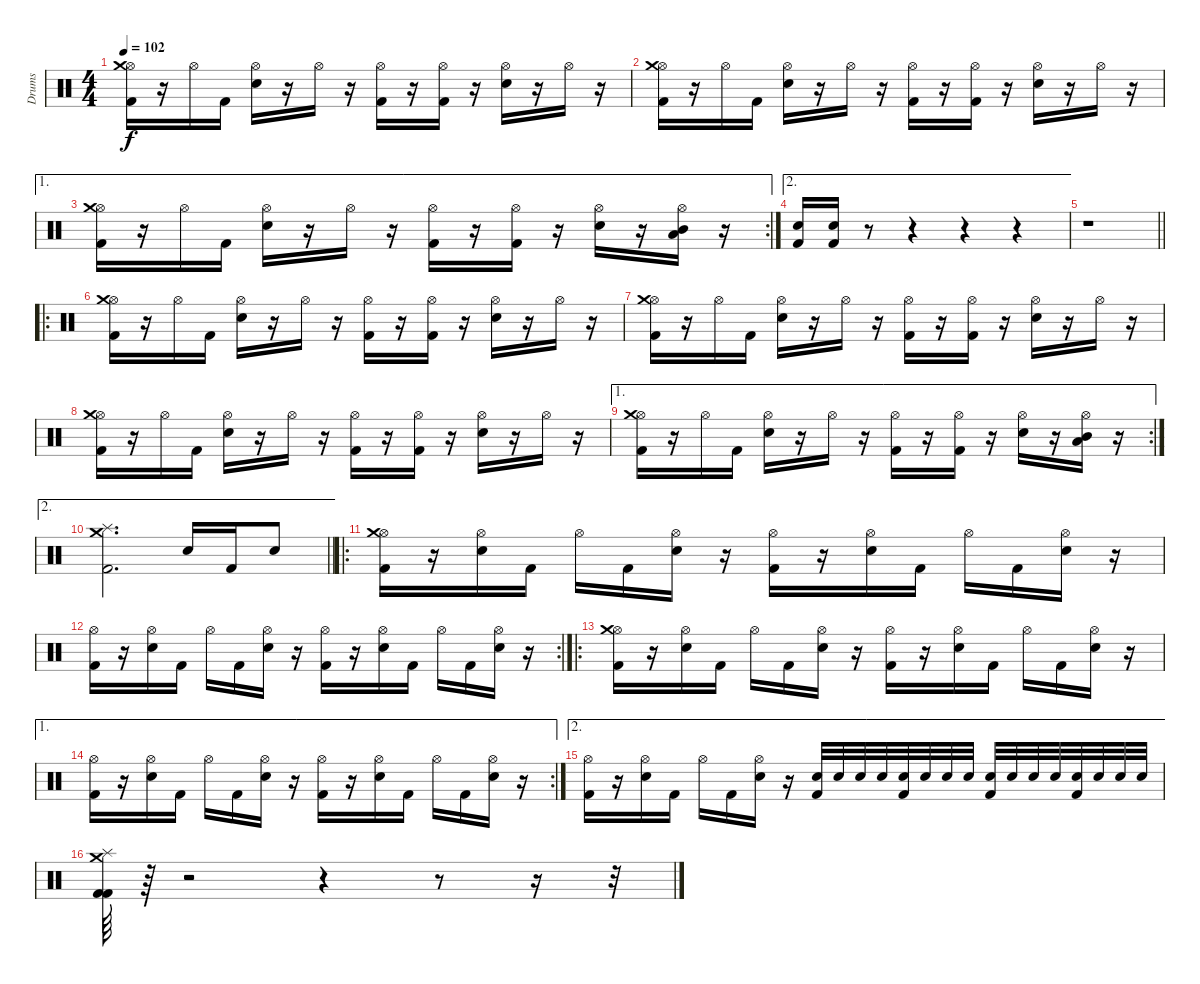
\track ("Drums" "Drums") {instrument percussion}
\staff {score}
\articulation defaults
\ts (4 4)
\tempo 102
\clef neutral
\ks c
("Hi-Hat (open)" "Crash medium (hit)" "Kick (hit) 2").16{dy f} r.16 "Hi-Hat (open)".16 "Kick (hit) 2".16 ("Hi-Hat (open)" "Electric Snare (hit)").16 r.16 "Hi-Hat (open)".16 r.16 ("Hi-Hat (open)" "Kick (hit) 2").16 r.16 ("Hi-Hat (open)" "Kick (hit) 2").16 r.16 ("Hi-Hat (open)" "Electric Snare (hit)").16 r.16 "Hi-Hat (open)".16 r.16 |
("Hi-Hat (open)" "Crash medium (hit)" "Kick (hit) 2").16 r.16 "Hi-Hat (open)".16 "Kick (hit) 2".16 ("Hi-Hat (open)" "Electric Snare (hit)").16 r.16 "Hi-Hat (open)".16 r.16 ("Hi-Hat (open)" "Kick (hit) 2").16 r.16 ("Hi-Hat (open)" "Kick (hit) 2").16 r.16 ("Hi-Hat (open)" "Electric Snare (hit)").16 r.16 "Hi-Hat (open)".16 r.16 |
\ae 1
\rc 2
("Hi-Hat (open)" "Crash medium (hit)" "Kick (hit) 2").16 r.16 "Hi-Hat (open)".16 "Kick (hit) 2".16 ("Hi-Hat (open)" "Electric Snare (hit)").16 r.16 "Hi-Hat (open)".16 r.16 ("Hi-Hat (open)" "Kick (hit) 2").16 r.16 ("Hi-Hat (open)" "Kick (hit) 2").16 r.16 ("Hi-Hat (open)" "Electric Snare (hit)").16 r.16 ("Hi-Hat (open)" "Mid Tom (hit)" "Low Tom (hit)").16 r.16 |
\ae 2
("Electric Snare (hit)" "Kick (hit) 2").16 ("Electric Snare (hit)" "Kick (hit) 2").16 r.8 r.4 r.4 r.4 |
\barLineRight lightlight
r.1 |
\ro
("Hi-Hat (open)" "Crash medium (hit)" "Kick (hit) 2").16 r.16 "Hi-Hat (open)".16 "Kick (hit) 2".16 ("Hi-Hat (open)" "Electric Snare (hit)").16 r.16 "Hi-Hat (open)".16 r.16 ("Hi-Hat (open)" "Kick (hit) 2").16 r.16 ("Hi-Hat (open)" "Kick (hit) 2").16 r.16 ("Hi-Hat (open)" "Electric Snare (hit)").16 r.16 "Hi-Hat (open)".16 r.16 |
("Hi-Hat (open)" "Crash medium (hit)" "Kick (hit) 2").16 r.16 "Hi-Hat (open)".16 "Kick (hit) 2".16 ("Hi-Hat (open)" "Electric Snare (hit)").16 r.16 "Hi-Hat (open)".16 r.16 ("Hi-Hat (open)" "Kick (hit) 2").16 r.16 ("Hi-Hat (open)" "Kick (hit) 2").16 r.16 ("Hi-Hat (open)" "Electric Snare (hit)").16 r.16 "Hi-Hat (open)".16 r.16 |
("Hi-Hat (open)" "Crash medium (hit)" "Kick (hit) 2").16 r.16 "Hi-Hat (open)".16 "Kick (hit) 2".16 ("Hi-Hat (open)" "Electric Snare (hit)").16 r.16 "Hi-Hat (open)".16 r.16 ("Hi-Hat (open)" "Kick (hit) 2").16 r.16 ("Hi-Hat (open)" "Kick (hit) 2").16 r.16 ("Hi-Hat (open)" "Electric Snare (hit)").16 r.16 "Hi-Hat (open)".16 r.16 |
\ae 1
\rc 2
("Hi-Hat (open)" "Crash medium (hit)" "Kick (hit) 2").16 r.16 "Hi-Hat (open)".16 "Kick (hit) 2".16 ("Hi-Hat (open)" "Electric Snare (hit)").16 r.16 "Hi-Hat (open)".16 r.16 ("Hi-Hat (open)" "Kick (hit) 2").16 r.16 ("Hi-Hat (open)" "Kick (hit) 2").16 r.16 ("Hi-Hat (open)" "Electric Snare (hit)").16 r.16 ("Hi-Hat (open)" "Mid Tom (hit)" "Low Tom (hit)").16 r.16 |
\ae 2
\barLineRight lightlight
("Splash (hit)" "Crash medium (hit)" "Kick (hit) 2").2{d} "Electric Snare (hit)".16 "Kick (hit) 2".16 "Electric Snare (hit)".8 |
\ro
("Hi-Hat (open)" "Crash medium (hit)" "Kick (hit) 2").16 r.16 ("Hi-Hat (open)" "Electric Snare (hit)").16 "Kick (hit) 2".16 "Hi-Hat (open)".16 "Kick (hit) 2".16 ("Hi-Hat (open)" "Electric Snare (hit)").16 r.16 ("Hi-Hat (open)" "Kick (hit) 2").16 r.16 ("Hi-Hat (open)" "Electric Snare (hit)").16 "Kick (hit) 2".16 "Hi-Hat (open)".16 "Kick (hit) 2".16 ("Hi-Hat (open)" "Electric Snare (hit)").16 r.16 |
\rc 2
("Hi-Hat (open)" "Kick (hit) 2").16 r.16 ("Hi-Hat (open)" "Electric Snare (hit)").16 "Kick (hit) 2".16 "Hi-Hat (open)".16 "Kick (hit) 2".16 ("Hi-Hat (open)" "Electric Snare (hit)").16 r.16 ("Hi-Hat (open)" "Kick (hit) 2").16 r.16 ("Hi-Hat (open)" "Electric Snare (hit)").16 "Kick (hit) 2".16 "Hi-Hat (open)".16 "Kick (hit) 2".16 ("Hi-Hat (open)" "Electric Snare (hit)").16 r.16 |
\ro
("Hi-Hat (open)" "Crash medium (hit)" "Kick (hit) 2").16 r.16 ("Hi-Hat (open)" "Electric Snare (hit)").16 "Kick (hit) 2".16 "Hi-Hat (open)".16 "Kick (hit) 2".16 ("Hi-Hat (open)" "Electric Snare (hit)").16 r.16 ("Hi-Hat (open)" "Kick (hit) 2").16 r.16 ("Hi-Hat (open)" "Electric Snare (hit)").16 "Kick (hit) 2".16 "Hi-Hat (open)".16 "Kick (hit) 2".16 ("Hi-Hat (open)" "Electric Snare (hit)").16 r.16 |
\ae 1
\rc 2
("Hi-Hat (open)" "Kick (hit) 2").16 r.16 ("Hi-Hat (open)" "Electric Snare (hit)").16 "Kick (hit) 2".16 "Hi-Hat (open)".16 "Kick (hit) 2".16 ("Hi-Hat (open)" "Electric Snare (hit)").16 r.16 ("Hi-Hat (open)" "Kick (hit) 2").16 r.16 ("Hi-Hat (open)" "Electric Snare (hit)").16 "Kick (hit) 2".16 "Hi-Hat (open)".16 "Kick (hit) 2".16 ("Hi-Hat (open)" "Electric Snare (hit)").16 r.16 |
\ae 2
("Hi-Hat (open)" "Kick (hit) 2").16 r.16 ("Hi-Hat (open)" "Electric Snare (hit)").16 "Kick (hit) 2".16 "Hi-Hat (open)".16 "Kick (hit) 2".16 ("Hi-Hat (open)" "Electric Snare (hit)").16 r.16 ("Kick (hit) 2" "Electric Snare (hit)").32 "Electric Snare (hit)".32 "Electric Snare (hit)".32 "Electric Snare (hit)".32 ("Kick (hit) 2" "Electric Snare (hit)").32 "Electric Snare (hit)".32 "Electric Snare (hit)".32 "Electric Snare (hit)".32 ("Kick (hit) 2" "Electric Snare (hit)").32 "Electric Snare (hit)".32 "Electric Snare (hit)".32 "Electric Snare (hit)".32 ("Kick (hit) 2" "Electric Snare (hit)").32 "Electric Snare (hit)".32 "Electric Snare (hit)".32 "Electric Snare (hit)".32 |
("Kick (hit) 2" "Splash (hit)" "Crash medium (hit)" "Kick (hit) 2").64 r.64 r.2 r.4 r.8 r.16 r.32
